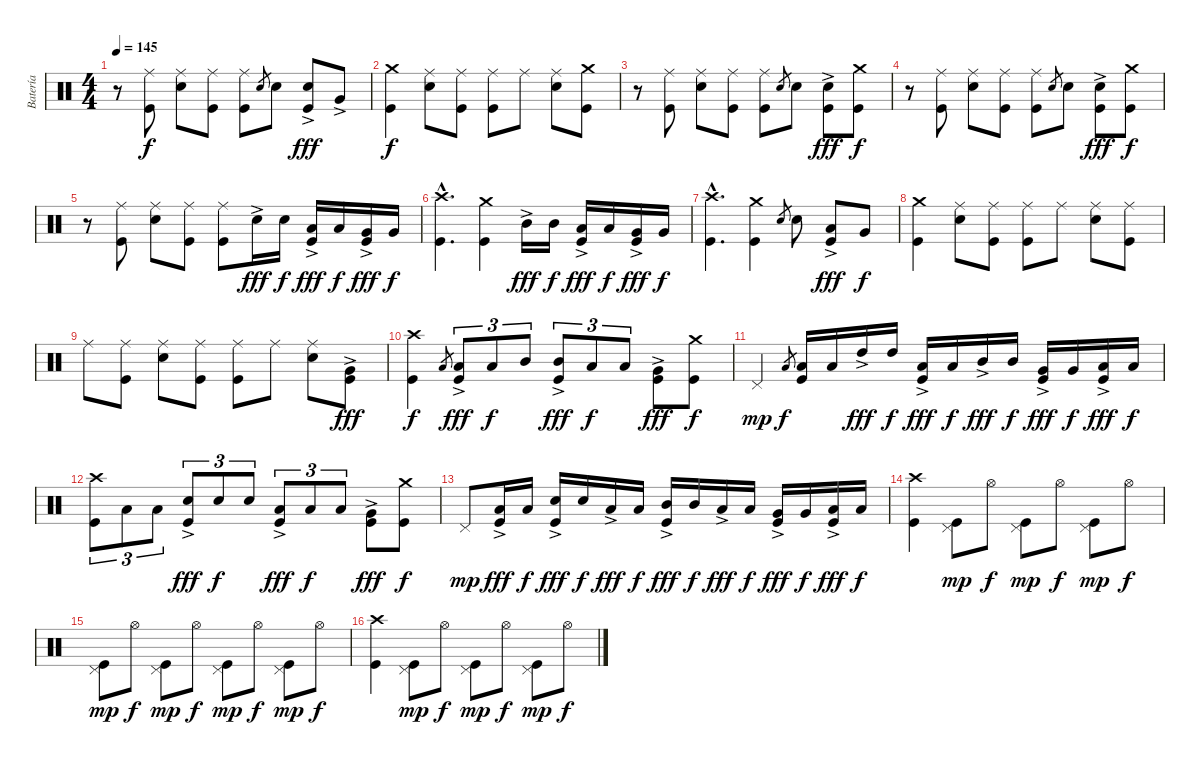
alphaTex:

\track ("Batería" "Batería") {instrument percussion}
\staff {score}
\articulation defaults
\ts (4 4)
\tempo 145
\clef neutral
\ks c
r.8{dy f} ("Kick (hit)" "Ride (middle)").8 ("Electric Snare (hit)" "Ride (middle)").8 ("Kick (hit)" "Ride (middle)").8 ("Kick (hit)" "Ride (middle)").8 "Electric Snare (hit)".8{gr} "Electric Snare (hit)".8 ("Kick (hit)" "Electric Snare (hit)"{ac}).8{dy fff} "Very Low Tom (hit)"{ac}.8 |
("Kick (hit)" "Crash medium (hit)").4{dy f} ("Electric Snare (hit)" "Ride (middle)").8 ("Kick (hit)" "Ride (middle)").8 ("Kick (hit)" "Ride (middle)").8 "Ride (middle)".8 ("Electric Snare (hit)" "Ride (middle)").8 ("Kick (hit)" "Crash medium (hit)").8 |
r.8 ("Kick (hit)" "Ride (middle)").8 ("Electric Snare (hit)" "Ride (middle)").8 ("Kick (hit)" "Ride (middle)").8 ("Kick (hit)" "Ride (middle)").8 "Electric Snare (hit)".8{gr} "Electric Snare (hit)".8 ("Kick (hit)" "Electric Snare (hit)"{ac}).8{dy fff} ("Kick (hit)" "Crash medium (hit)").8{dy f} |
r.8 ("Kick (hit)" "Ride (middle)").8 ("Electric Snare (hit)" "Ride (middle)").8 ("Kick (hit)" "Ride (middle)").8 ("Kick (hit)" "Ride (middle)").8 "Electric Snare (hit)".8{gr} "Electric Snare (hit)".8 ("Kick (hit)" "Electric Snare (hit)"{ac}).8{dy fff} ("Kick (hit)" "Crash medium (hit)").8{dy f} |
r.8 ("Kick (hit)" "Ride (middle)").8 ("Electric Snare (hit)" "Ride (middle)").8 ("Kick (hit)" "Ride (middle)").8 ("Kick (hit)" "Ride (middle)").8 "Electric Snare (hit)"{ac}.16{dy fff} "Electric Snare (hit)".16{dy f} ("Kick (hit)" "Low Tom (hit)"{ac}).16{dy fff} "Low Tom (hit)".16{dy f} ("Kick (hit)" "Very Low Tom (hit)"{ac}).16{dy fff} "Very Low Tom (hit)".16{dy f} |
("Kick (hit)"{hac} "Crash high (hit)"{hac}).4{d} ("Kick (hit)" "Crash medium (hit)").4 "Mid Tom (hit)"{ac}.16{dy fff} "Mid Tom (hit)".16{dy f} ("Kick (hit)" "Low Tom (hit)"{ac}).16{dy fff} "Low Tom (hit)".16{dy f} ("Kick (hit)" "Very Low Tom (hit)"{ac}).16{dy fff} "Very Low Tom (hit)".16{dy f} |
("Kick (hit)"{hac} "Crash high (hit)"{hac}).4{d} ("Kick (hit)" "Crash medium (hit)").4 "Electric Snare (hit)".8{gr} "Electric Snare (hit)".8 ("Kick (hit)" "Low Tom (hit)"{ac}).8{dy fff} "Very Low Tom (hit)".8{dy f} |
("Kick (hit)" "Crash medium (hit)").4 ("Electric Snare (hit)" "Ride (middle)").8 ("Kick (hit)" "Ride (middle)").8 ("Kick (hit)" "Ride (middle)").8 "Ride (middle)".8 ("Electric Snare (hit)" "Ride (middle)").8 ("Kick (hit)" "Ride (middle)").8 |
"Ride (middle)".8 ("Kick (hit)" "Ride (middle)").8 ("Electric Snare (hit)" "Ride (middle)").8 ("Kick (hit)" "Ride (middle)").8 ("Kick (hit)" "Ride (middle)").8 "Ride (middle)".8 ("Electric Snare (hit)" "Ride (middle)").8 ("Kick (hit)" "Very Low Tom (hit)"{ac}).8{dy fff} |
("Kick (hit)" "Crash high (hit)").4{dy f} "Low Tom (hit)".8{gr} ("Kick (hit)" "Low Tom (hit)"{ac}).8{tu (3 2) dy fff} "Low Tom (hit)".8{tu (3 2) dy f} "Mid Tom (hit)".8{tu (3 2)} ("Kick (hit)" "Mid Tom (hit)"{ac}).8{tu (3 2) dy fff} "Low Tom (hit)".8{tu (3 2) dy f} "Low Tom (hit)".8{tu (3 2)} ("Kick (hit)" "Very Low Tom (hit)"{ac}).8{dy fff} ("Kick (hit)" "Crash medium (hit)").8{dy f} |
"Pedal Hi-Hat (hit)".4{dy mp} "Low Tom (hit)".8{gr dy f} ("Kick (hit)" "Low Tom (hit)").16 "Low Tom (hit)".16 "High Tom (hit)"{ac}.16{dy fff} "High Tom (hit)".16{dy f} ("Kick (hit)" "Low Tom (hit)"{ac}).16{dy fff} "Low Tom (hit)".16{dy f} "Mid Tom (hit)"{ac}.16{dy fff} "Mid Tom (hit)".16{dy f} ("Kick (hit)" "Very Low Tom (hit)"{ac}).16{dy fff} "Very Low Tom (hit)".16{dy f} ("Kick (hit)" "Low Floor Tom (hit)"{ac}).16{dy fff} "Low Floor Tom (hit)".16{dy f} |
("Kick (hit)" "Crash high (hit)").8{tu (3 2)} "Low Tom (hit)".8{tu (3 2)} "Low Tom (hit)".8{tu (3 2)} ("Kick (hit)" "Electric Snare (hit)"{ac}).8{tu (3 2) dy fff} "Electric Snare (hit)".8{tu (3 2) dy f} "Electric Snare (hit)".8{tu (3 2)} ("Kick (hit)" "Low Tom (hit)"{ac}).8{tu (3 2) dy fff} "Low Tom (hit)".8{tu (3 2) dy f} "Low Tom (hit)".8{tu (3 2)} ("Kick (hit)" "Very Low Tom (hit)"{ac}).8{dy fff} ("Kick (hit)" "Crash medium (hit)").8{dy f} |
"Pedal Hi-Hat (hit)".8{dy mp} ("Kick (hit)" "Low Tom (hit)"{ac}).16{dy fff} "Low Tom (hit)".16{dy f} ("Kick (hit)" "Electric Snare (hit)"{ac}).16{dy fff} "Electric Snare (hit)".16{dy f} "Low Tom (hit)"{ac}.16{dy fff} "Low Tom (hit)".16{dy f} ("Kick (hit)" "Mid Tom (hit)"{ac}).16{dy fff} "Mid Tom (hit)".16{dy f} "Low Tom (hit)"{ac}.16{dy fff} "Low Tom (hit)".16{dy f} ("Kick (hit)" "Very Low Tom (hit)"{ac}).16{dy fff} "Very Low Tom (hit)".16{dy f} ("Kick (hit)" "Low Floor Tom (hit)"{ac}).16{dy fff} "Low Floor Tom (hit)".16{dy f} |
("Kick (hit)" "Crash high (hit)").4 ("Kick (hit)" "Pedal Hi-Hat (hit)").8{dy mp} "Hi-Hat (open)".8{dy f} ("Kick (hit)" "Pedal Hi-Hat (hit)").8{dy mp} "Hi-Hat (open)".8{dy f} ("Kick (hit)" "Pedal Hi-Hat (hit)").8{dy mp} "Hi-Hat (open)".8{dy f} |
("Kick (hit)" "Pedal Hi-Hat (hit)").8{dy mp} "Hi-Hat (open)".8{dy f} ("Kick (hit)" "Pedal Hi-Hat (hit)").8{dy mp} "Hi-Hat (open)".8{dy f} ("Kick (hit)" "Pedal Hi-Hat (hit)").8{dy mp} "Hi-Hat (open)".8{dy f} ("Kick (hit)" "Pedal Hi-Hat (hit)").8{dy mp} "Hi-Hat (open)".8{dy f} |
("Kick (hit)" "Crash high (hit)").4 ("Kick (hit)" "Pedal Hi-Hat (hit)").8{dy mp} "Hi-Hat (open)".8{dy f} ("Kick (hit)" "Pedal Hi-Hat (hit)").8{dy mp} "Hi-Hat (open)".8{dy f} ("Kick (hit)" "Pedal Hi-Hat (hit)").8{dy mp} "Hi-Hat (open)".8{dy f}
